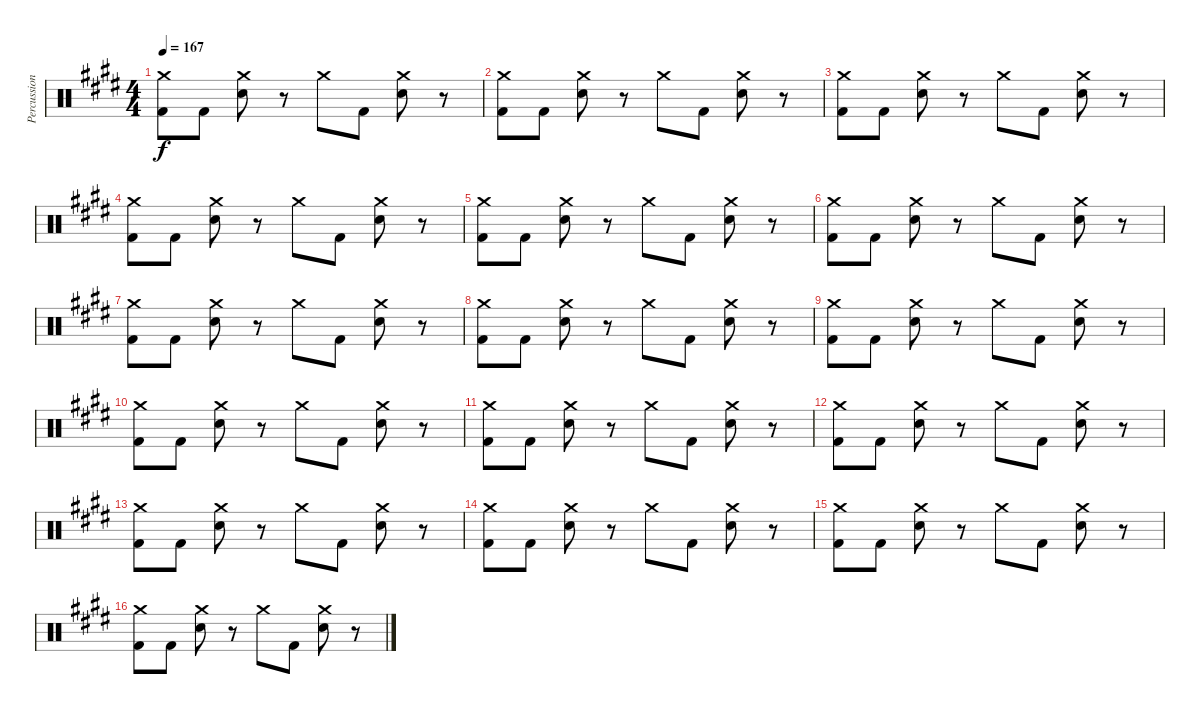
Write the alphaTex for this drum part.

\track ("Percussion" "Percussion") {instrument percussion}
\staff {score}
\articulation defaults
\ts (4 4)
\tempo 167
\clef neutral
\ks e
("Crash medium (hit)" "Kick (hit) 2").8{dy f} "Kick (hit) 2".8 ("Crash medium (hit)" "Electric Snare (hit)").8 r.8 "Crash medium (hit)".8 "Kick (hit) 2".8 ("Crash medium (hit)" "Electric Snare (hit)").8 r.8 |
("Crash medium (hit)" "Kick (hit) 2").8 "Kick (hit) 2".8 ("Crash medium (hit)" "Electric Snare (hit)").8 r.8 "Crash medium (hit)".8 "Kick (hit) 2".8 ("Crash medium (hit)" "Electric Snare (hit)").8 r.8 |
("Crash medium (hit)" "Kick (hit) 2").8 "Kick (hit) 2".8 ("Crash medium (hit)" "Electric Snare (hit)").8 r.8 "Crash medium (hit)".8 "Kick (hit) 2".8 ("Crash medium (hit)" "Electric Snare (hit)").8 r.8 |
("Crash medium (hit)" "Kick (hit) 2").8 "Kick (hit) 2".8 ("Crash medium (hit)" "Electric Snare (hit)").8 r.8 "Crash medium (hit)".8 "Kick (hit) 2".8 ("Crash medium (hit)" "Electric Snare (hit)").8 r.8 |
("Crash medium (hit)" "Kick (hit) 2").8 "Kick (hit) 2".8 ("Crash medium (hit)" "Electric Snare (hit)").8 r.8 "Crash medium (hit)".8 "Kick (hit) 2".8 ("Crash medium (hit)" "Electric Snare (hit)").8 r.8 |
("Crash medium (hit)" "Kick (hit) 2").8 "Kick (hit) 2".8 ("Crash medium (hit)" "Electric Snare (hit)").8 r.8 "Crash medium (hit)".8 "Kick (hit) 2".8 ("Crash medium (hit)" "Electric Snare (hit)").8 r.8 |
("Crash medium (hit)" "Kick (hit) 2").8 "Kick (hit) 2".8 ("Crash medium (hit)" "Electric Snare (hit)").8 r.8 "Crash medium (hit)".8 "Kick (hit) 2".8 ("Crash medium (hit)" "Electric Snare (hit)").8 r.8 |
("Crash medium (hit)" "Kick (hit) 2").8 "Kick (hit) 2".8 ("Crash medium (hit)" "Electric Snare (hit)").8 r.8 "Crash medium (hit)".8 "Kick (hit) 2".8 ("Crash medium (hit)" "Electric Snare (hit)").8 r.8 |
("Crash medium (hit)" "Kick (hit) 2").8 "Kick (hit) 2".8 ("Crash medium (hit)" "Electric Snare (hit)").8 r.8 "Crash medium (hit)".8 "Kick (hit) 2".8 ("Crash medium (hit)" "Electric Snare (hit)").8 r.8 |
("Crash medium (hit)" "Kick (hit) 2").8 "Kick (hit) 2".8 ("Crash medium (hit)" "Electric Snare (hit)").8 r.8 "Crash medium (hit)".8 "Kick (hit) 2".8 ("Crash medium (hit)" "Electric Snare (hit)").8 r.8 |
("Crash medium (hit)" "Kick (hit) 2").8 "Kick (hit) 2".8 ("Crash medium (hit)" "Electric Snare (hit)").8 r.8 "Crash medium (hit)".8 "Kick (hit) 2".8 ("Crash medium (hit)" "Electric Snare (hit)").8 r.8 |
("Crash medium (hit)" "Kick (hit) 2").8 "Kick (hit) 2".8 ("Crash medium (hit)" "Electric Snare (hit)").8 r.8 "Crash medium (hit)".8 "Kick (hit) 2".8 ("Crash medium (hit)" "Electric Snare (hit)").8 r.8 |
("Crash medium (hit)" "Kick (hit) 2").8 "Kick (hit) 2".8 ("Crash medium (hit)" "Electric Snare (hit)").8 r.8 "Crash medium (hit)".8 "Kick (hit) 2".8 ("Crash medium (hit)" "Electric Snare (hit)").8 r.8 |
("Crash medium (hit)" "Kick (hit) 2").8 "Kick (hit) 2".8 ("Crash medium (hit)" "Electric Snare (hit)").8 r.8 "Crash medium (hit)".8 "Kick (hit) 2".8 ("Crash medium (hit)" "Electric Snare (hit)").8 r.8 |
("Crash medium (hit)" "Kick (hit) 2").8 "Kick (hit) 2".8 ("Crash medium (hit)" "Electric Snare (hit)").8 r.8 "Crash medium (hit)".8 "Kick (hit) 2".8 ("Crash medium (hit)" "Electric Snare (hit)").8 r.8 |
("Crash medium (hit)" "Kick (hit) 2").8 "Kick (hit) 2".8 ("Crash medium (hit)" "Electric Snare (hit)").8 r.8 "Crash medium (hit)".8 "Kick (hit) 2".8 ("Crash medium (hit)" "Electric Snare (hit)").8 r.8
